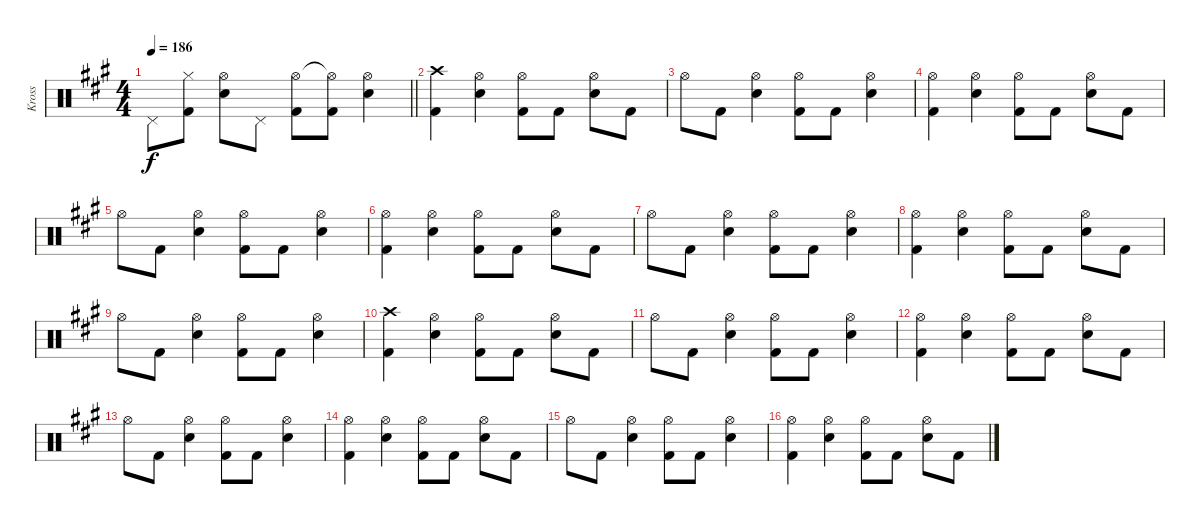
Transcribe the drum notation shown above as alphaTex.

\track ("Kross" "Kross") {instrument percussion}
\staff {score}
\articulation defaults
\ts (4 4)
\tempo 186
\clef neutral
\barLineRight lightlight
\ks a "Pedal Hi-Hat (hit)".8{dy f}
("Hi-Hat (closed)" "Kick (hit) 2").8 ("Hi-Hat (open)" "Electric Snare (hit)").8 "Pedal Hi-Hat (hit)".8 ("Hi-Hat (open)" "Kick (hit) 2").8 ("Hi-Hat (open)"{t} "Kick (hit) 2").8 ("Hi-Hat (open)" "Electric Snare (hit)").4 |
("Crash high (hit)" "Kick (hit) 2").4 ("Hi-Hat (open)" "Electric Snare (hit)").4 ("Hi-Hat (open)" "Kick (hit) 2").8 "Kick (hit) 2".8 ("Hi-Hat (open)" "Electric Snare (hit)").8 "Kick (hit) 2".8 |
"Hi-Hat (open)".8 "Kick (hit) 2".8 ("Hi-Hat (open)" "Electric Snare (hit)").4 ("Hi-Hat (open)" "Kick (hit) 2").8 "Kick (hit) 2".8 ("Hi-Hat (open)" "Electric Snare (hit)").4 |
("Hi-Hat (open)" "Kick (hit) 2").4 ("Hi-Hat (open)" "Electric Snare (hit)").4 ("Hi-Hat (open)" "Kick (hit) 2").8 "Kick (hit) 2".8 ("Hi-Hat (open)" "Electric Snare (hit)").8 "Kick (hit) 2".8 |
"Hi-Hat (open)".8 "Kick (hit) 2".8 ("Hi-Hat (open)" "Electric Snare (hit)").4 ("Hi-Hat (open)" "Kick (hit) 2").8 "Kick (hit) 2".8 ("Hi-Hat (open)" "Electric Snare (hit)").4 |
("Hi-Hat (open)" "Kick (hit) 2").4 ("Hi-Hat (open)" "Electric Snare (hit)").4 ("Hi-Hat (open)" "Kick (hit) 2").8 "Kick (hit) 2".8 ("Hi-Hat (open)" "Electric Snare (hit)").8 "Kick (hit) 2".8 |
"Hi-Hat (open)".8 "Kick (hit) 2".8 ("Hi-Hat (open)" "Electric Snare (hit)").4 ("Hi-Hat (open)" "Kick (hit) 2").8 "Kick (hit) 2".8 ("Hi-Hat (open)" "Electric Snare (hit)").4 |
("Hi-Hat (open)" "Kick (hit) 2").4 ("Hi-Hat (open)" "Electric Snare (hit)").4 ("Hi-Hat (open)" "Kick (hit) 2").8 "Kick (hit) 2".8 ("Hi-Hat (open)" "Electric Snare (hit)").8 "Kick (hit) 2".8 |
"Hi-Hat (open)".8 "Kick (hit) 2".8 ("Hi-Hat (open)" "Electric Snare (hit)").4 ("Hi-Hat (open)" "Kick (hit) 2").8 "Kick (hit) 2".8 ("Hi-Hat (open)" "Electric Snare (hit)").4 |
("Crash high (hit)" "Kick (hit) 2").4 ("Hi-Hat (open)" "Electric Snare (hit)").4 ("Hi-Hat (open)" "Kick (hit) 2").8 "Kick (hit) 2".8 ("Hi-Hat (open)" "Electric Snare (hit)").8 "Kick (hit) 2".8 |
"Hi-Hat (open)".8 "Kick (hit) 2".8 ("Hi-Hat (open)" "Electric Snare (hit)").4 ("Hi-Hat (open)" "Kick (hit) 2").8 "Kick (hit) 2".8 ("Hi-Hat (open)" "Electric Snare (hit)").4 |
("Hi-Hat (open)" "Kick (hit) 2").4 ("Hi-Hat (open)" "Electric Snare (hit)").4 ("Hi-Hat (open)" "Kick (hit) 2").8 "Kick (hit) 2".8 ("Hi-Hat (open)" "Electric Snare (hit)").8 "Kick (hit) 2".8 |
"Hi-Hat (open)".8 "Kick (hit) 2".8 ("Hi-Hat (open)" "Electric Snare (hit)").4 ("Hi-Hat (open)" "Kick (hit) 2").8 "Kick (hit) 2".8 ("Hi-Hat (open)" "Electric Snare (hit)").4 |
("Hi-Hat (open)" "Kick (hit) 2").4 ("Hi-Hat (open)" "Electric Snare (hit)").4 ("Hi-Hat (open)" "Kick (hit) 2").8 "Kick (hit) 2".8 ("Hi-Hat (open)" "Electric Snare (hit)").8 "Kick (hit) 2".8 |
"Hi-Hat (open)".8 "Kick (hit) 2".8 ("Hi-Hat (open)" "Electric Snare (hit)").4 ("Hi-Hat (open)" "Kick (hit) 2").8 "Kick (hit) 2".8 ("Hi-Hat (open)" "Electric Snare (hit)").4 |
("Hi-Hat (open)" "Kick (hit) 2").4 ("Hi-Hat (open)" "Electric Snare (hit)").4 ("Hi-Hat (open)" "Kick (hit) 2").8 "Kick (hit) 2".8 ("Hi-Hat (open)" "Electric Snare (hit)").8 "Kick (hit) 2".8
